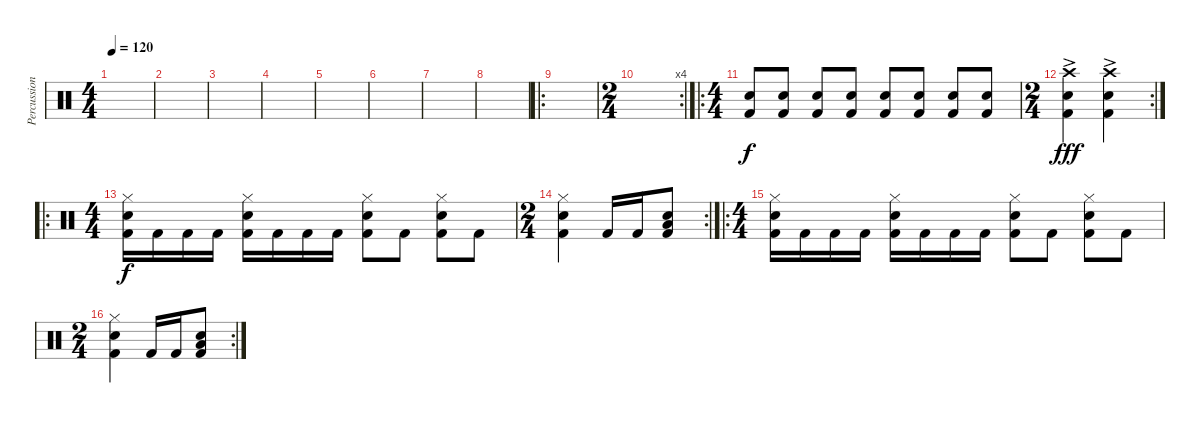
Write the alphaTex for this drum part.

\track ("Percussion" "Percussion") {instrument percussion}
\staff {score}
\articulation defaults
\ts (4 4)
\tempo 120
\clef neutral
\ks c
|
|
|
|
|
|
|
|
\ro
|
\rc 4
\ts (2 4)
|
\ro
\ts (4 4)
("Snare (hit) 2" "Kick (hit) 2").8 ("Snare (hit) 2" "Kick (hit) 2").8 ("Snare (hit) 2" "Kick (hit) 2").8 ("Snare (hit) 2" "Kick (hit) 2").8 ("Snare (hit) 2" "Kick (hit) 2").8 ("Snare (hit) 2" "Kick (hit) 2").8 ("Snare (hit) 2" "Kick (hit) 2").8 ("Snare (hit) 2" "Kick (hit) 2").8 |
\rc 2
\ts (2 4)
("Electric Snare (hit)" "Crash high (hit)"{ac} "Kick (hit) 2").4{dy fff} ("Electric Snare (hit)" "Crash high (hit)"{ac} "Kick (hit) 2").4 |
\ro
\ts (4 4)
("Hi-Hat (closed)" "Snare (hit) 2" "Kick (hit) 2").16{dy f} "Kick (hit) 2".16 "Kick (hit) 2".16 "Kick (hit) 2".16 ("Hi-Hat (closed)" "Snare (hit) 2" "Kick (hit) 2").16 "Kick (hit) 2".16 "Kick (hit) 2".16 "Kick (hit) 2".16 ("Hi-Hat (closed)" "Snare (hit) 2" "Kick (hit) 2").8 "Kick (hit) 2".8 ("Hi-Hat (closed)" "Snare (hit) 2" "Kick (hit) 2").8 "Kick (hit) 2".8 |
\rc 2
\ts (2 4)
("Hi-Hat (closed)" "Snare (hit) 2" "Kick (hit) 2").4 "Kick (hit) 2".16 "Kick (hit) 2".16 ("Low Floor Tom (hit)" "Snare (hit) 2" "Kick (hit) 2").8 |
\ro
\ts (4 4)
("Hi-Hat (closed)" "Snare (hit) 2" "Kick (hit) 2").16 "Kick (hit) 2".16 "Kick (hit) 2".16 "Kick (hit) 2".16 ("Hi-Hat (closed)" "Snare (hit) 2" "Kick (hit) 2").16 "Kick (hit) 2".16 "Kick (hit) 2".16 "Kick (hit) 2".16 ("Hi-Hat (closed)" "Snare (hit) 2" "Kick (hit) 2").8 "Kick (hit) 2".8 ("Hi-Hat (closed)" "Snare (hit) 2" "Kick (hit) 2").8 "Kick (hit) 2".8 |
\rc 2
\ts (2 4)
("Hi-Hat (closed)" "Snare (hit) 2" "Kick (hit) 2").4 "Kick (hit) 2".16 "Kick (hit) 2".16 ("Low Floor Tom (hit)" "Snare (hit) 2" "Kick (hit) 2").8
